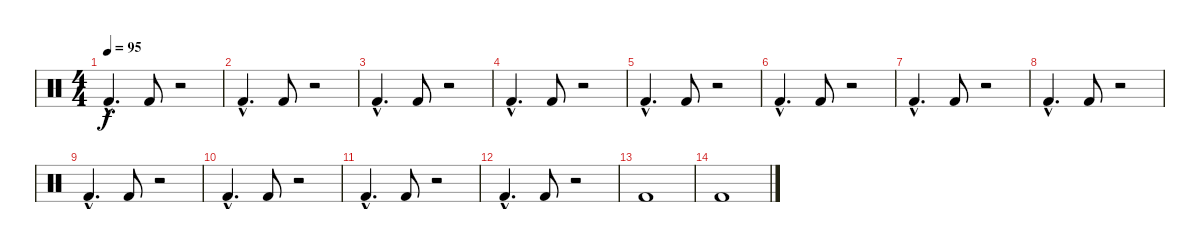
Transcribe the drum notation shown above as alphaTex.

\track "" {instrument percussion}
\staff {score}
\articulation defaults
\ts (4 4)
\tempo 95
\clef neutral
\ks c "Kick (hit) 2"{hac}.4{d dy f} "Kick (hit) 2".8
r.2 |
"Kick (hit) 2"{hac}.4{d} "Kick (hit) 2".8 r.2 |
"Kick (hit) 2"{hac}.4{d} "Kick (hit) 2".8 r.2 |
"Kick (hit) 2"{hac}.4{d} "Kick (hit) 2".8 r.2 |
"Kick (hit) 2"{hac}.4{d} "Kick (hit) 2".8 r.2 |
"Kick (hit) 2"{hac}.4{d} "Kick (hit) 2".8 r.2 |
"Kick (hit) 2"{hac}.4{d} "Kick (hit) 2".8 r.2 |
"Kick (hit) 2"{hac}.4{d} "Kick (hit) 2".8 r.2 |
"Kick (hit) 2"{hac}.4{d} "Kick (hit) 2".8 r.2 |
"Kick (hit) 2"{hac}.4{d} "Kick (hit) 2".8 r.2 |
"Kick (hit) 2"{hac}.4{d} "Kick (hit) 2".8 r.2 |
"Kick (hit) 2"{hac}.4{d} "Kick (hit) 2".8 r.2 |
"Kick (hit) 2".1 |
"Kick (hit) 2".1
